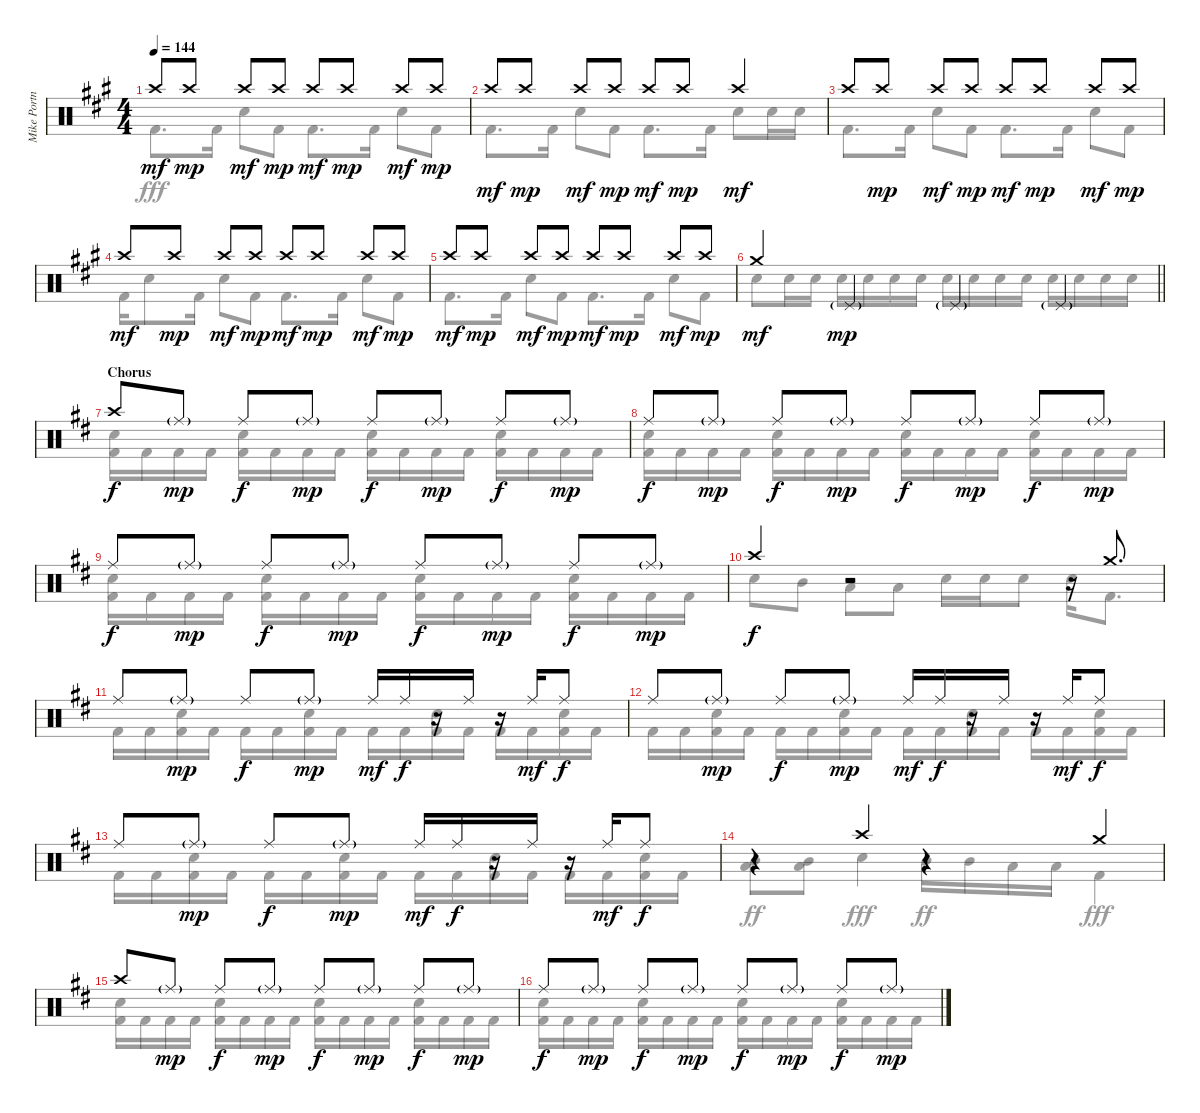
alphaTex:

\track ("Mike Portnoy Drums" "Mike Portn") {instrument percussion}
\staff {score}
\articulation defaults
\voice
\ts (4 4)
\tempo 144
\clef neutral
\ks f#minor "Crash high (hit)".8{dy mf} "Crash high (hit)".8{dy mp} "Crash high (hit)".8{dy mf} "Crash high (hit)".8{dy mp} "Crash high (hit)".8{dy mf} "Crash high (hit)".8{dy mp} "Crash high (hit)".8{dy mf} "Crash high (hit)".8{dy mp}
|
"Crash high (hit)".8{dy mf} "Crash high (hit)".8{dy mp} "Crash high (hit)".8{dy mf} "Crash high (hit)".8{dy mp} "Crash high (hit)".8{dy mf} "Crash high (hit)".8{dy mp} "Crash high (hit)".4{dy mf} |
"Crash high (hit)".8 "Crash high (hit)".8{dy mp} "Crash high (hit)".8{dy mf} "Crash high (hit)".8{dy mp} "Crash high (hit)".8{dy mf} "Crash high (hit)".8{dy mp} "Crash high (hit)".8{dy mf} "Crash high (hit)".8{dy mp} |
"Crash high (hit)".8{dy mf} "Crash high (hit)".8{dy mp} "Crash high (hit)".8{dy mf} "Crash high (hit)".8{dy mp} "Crash high (hit)".8{dy mf} "Crash high (hit)".8{dy mp} "Crash high (hit)".8{dy mf} "Crash high (hit)".8{dy mp} |
"Crash high (hit)".8{dy mf} "Crash high (hit)".8{dy mp} "Crash high (hit)".8{dy mf} "Crash high (hit)".8{dy mp} "Crash high (hit)".8{dy mf} "Crash high (hit)".8{dy mp} "Crash high (hit)".8{dy mf} "Crash high (hit)".8{dy mp} |
\barLineRight lightlight "Crash medium (hit)".4{dy mf} "Pedal Hi-Hat (hit)"{g}.4{dy mp} "Pedal Hi-Hat (hit)"{g}.4 "Pedal Hi-Hat (hit)"{g}.4
|
\section ("" "Chorus")
\ks bminor "Crash high (hit)".8{dy f} "Ride (middle)"{g}.8{dy mp} "Ride (middle)".8{dy f} "Ride (middle)"{g}.8{dy mp} "Ride (middle)".8{dy f} "Ride (middle)"{g}.8{dy mp} "Ride (middle)".8{dy f} "Ride (middle)"{g}.8{dy mp}
|
"Ride (middle)".8{dy f} "Ride (middle)"{g}.8{dy mp} "Ride (middle)".8{dy f} "Ride (middle)"{g}.8{dy mp} "Ride (middle)".8{dy f} "Ride (middle)"{g}.8{dy mp} "Ride (middle)".8{dy f} "Ride (middle)"{g}.8{dy mp} |
"Ride (middle)".8{dy f} "Ride (middle)"{g}.8{dy mp} "Ride (middle)".8{dy f} "Ride (middle)"{g}.8{dy mp} "Ride (middle)".8{dy f} "Ride (middle)"{g}.8{dy mp} "Ride (middle)".8{dy f} "Ride (middle)"{g}.8{dy mp} |
"Crash high (hit)".4{dy f} r.2 r.16 "Crash medium (hit)".8{d} |
"Ride (middle)".8 "Ride (middle)"{g}.8{dy mp} "Ride (middle)".8{dy f} "Ride (middle)"{g}.8{dy mp} "Ride (middle)".16{dy mf} "Ride (middle)".16{dy f} r.16 "Ride (middle)".16 r.16 "Ride (middle)".16{dy mf} "Ride (middle)".8{dy f} |
"Ride (middle)".8 "Ride (middle)"{g}.8{dy mp} "Ride (middle)".8{dy f} "Ride (middle)"{g}.8{dy mp} "Ride (middle)".16{dy mf} "Ride (middle)".16{dy f} r.16 "Ride (middle)".16 r.16 "Ride (middle)".16{dy mf} "Ride (middle)".8{dy f} |
"Ride (middle)".8 "Ride (middle)"{g}.8{dy mp} "Ride (middle)".8{dy f} "Ride (middle)"{g}.8{dy mp} "Ride (middle)".16{dy mf} "Ride (middle)".16{dy f} r.16 "Ride (middle)".16 r.16 "Ride (middle)".16{dy mf} "Ride (middle)".8{dy f} |
r.4 "Crash high (hit)".4 r.4 "Crash medium (hit)".4 |
"Crash high (hit)".8 "Ride (middle)"{g}.8{dy mp} "Ride (middle)".8{dy f} "Ride (middle)"{g}.8{dy mp} "Ride (middle)".8{dy f} "Ride (middle)"{g}.8{dy mp} "Ride (middle)".8{dy f} "Ride (middle)"{g}.8{dy mp} |
"Ride (middle)".8{dy f} "Ride (middle)"{g}.8{dy mp} "Ride (middle)".8{dy f} "Ride (middle)"{g}.8{dy mp} "Ride (middle)".8{dy f} "Ride (middle)"{g}.8{dy mp} "Ride (middle)".8{dy f} "Ride (middle)"{g}.8{dy mp}
\voice
\clef neutral
\ottava regular
\simile none
\ks f#minor "Kick (hit) 2".8{d dy fff} "Kick (hit) 2".16 "Snare (hit) 2".8 "Kick (hit) 2".8 "Kick (hit) 2".8{d} "Kick (hit) 2".16 "Snare (hit) 2".8 "Kick (hit) 2".8
|
"Kick (hit) 2".8{d} "Kick (hit) 2".16 "Snare (hit) 2".8 "Kick (hit) 2".8 "Kick (hit) 2".8{d} "Kick (hit) 2".16 "Snare (hit) 2".8 "Snare (hit) 2".16 "Snare (hit) 2".16 |
"Kick (hit) 2".8{d} "Kick (hit) 2".16 "Snare (hit) 2".8 "Kick (hit) 2".8 "Kick (hit) 2".8{d} "Kick (hit) 2".16 "Snare (hit) 2".8 "Kick (hit) 2".8 |
"Kick (hit) 2".16 "Snare (hit) 2".8 "Kick (hit) 2".16 "Snare (hit) 2".8 "Kick (hit) 2".8 "Kick (hit) 2".8{d} "Kick (hit) 2".16 "Snare (hit) 2".8 "Kick (hit) 2".8 |
"Kick (hit) 2".8{d} "Kick (hit) 2".16 "Snare (hit) 2".8 "Kick (hit) 2".8 "Kick (hit) 2".8{d} "Kick (hit) 2".16 "Snare (hit) 2".8 "Kick (hit) 2".8 |
\barLineRight lightlight "Snare (hit) 2".8 "Snare (hit) 2".16 "Snare (hit) 2".16 "Snare (hit) 2".16 "Snare (hit) 2".16 "Snare (hit) 2".16 "Snare (hit) 2".16 "Snare (hit) 2".16 "Snare (hit) 2".16 "Snare (hit) 2".16 "Snare (hit) 2".16 "Snare (hit) 2".16 "Snare (hit) 2".16 "Snare (hit) 2".16 "Snare (hit) 2".16
|
\ks bminor
("Snare (hit) 2" "Kick (hit) 2").16 "Kick (hit) 2".16 "Kick (hit) 2".16 "Kick (hit) 2".16 ("Snare (hit) 2" "Kick (hit) 2").16 "Kick (hit) 2".16 "Kick (hit) 2".16 "Kick (hit) 2".16 ("Snare (hit) 2" "Kick (hit) 2").16 "Kick (hit) 2".16 "Kick (hit) 2".16 "Kick (hit) 2".16 ("Snare (hit) 2" "Kick (hit) 2").16 "Kick (hit) 2".16 "Kick (hit) 2".16 "Kick (hit) 2".16 |
("Snare (hit) 2" "Kick (hit) 2").16 "Kick (hit) 2".16 "Kick (hit) 2".16 "Kick (hit) 2".16 ("Snare (hit) 2" "Kick (hit) 2").16 "Kick (hit) 2".16 "Kick (hit) 2".16 "Kick (hit) 2".16 ("Snare (hit) 2" "Kick (hit) 2").16 "Kick (hit) 2".16 "Kick (hit) 2".16 "Kick (hit) 2".16 ("Snare (hit) 2" "Kick (hit) 2").16 "Kick (hit) 2".16 "Kick (hit) 2".16 "Kick (hit) 2".16 |
("Snare (hit) 2" "Kick (hit) 2").16 "Kick (hit) 2".16 "Kick (hit) 2".16 "Kick (hit) 2".16 ("Snare (hit) 2" "Kick (hit) 2").16 "Kick (hit) 2".16 "Kick (hit) 2".16 "Kick (hit) 2".16 ("Snare (hit) 2" "Kick (hit) 2").16 "Kick (hit) 2".16 "Kick (hit) 2".16 "Kick (hit) 2".16 ("Snare (hit) 2" "Kick (hit) 2").16 "Kick (hit) 2".16 "Kick (hit) 2".16 "Kick (hit) 2".16 |
"Snare (hit) 2".8 "Mid Tom (hit)".8 "Low Tom (hit)".8 "Low Tom (hit)".8 "Snare (hit) 2".16 "Snare (hit) 2".16 "Snare (hit) 2".8 "Snare (hit) 2".16 "Kick (hit) 2".8{d} |
"Kick (hit) 2".16 "Kick (hit) 2".16 ("Snare (hit) 2" "Kick (hit) 2").16 "Kick (hit) 2".16 "Kick (hit) 2".16 "Kick (hit) 2".16 ("Snare (hit) 2" "Kick (hit) 2").16 "Kick (hit) 2".16 "Kick (hit) 2".16 "Kick (hit) 2".16 ("Snare (hit) 2" "Kick (hit) 2").16 "Kick (hit) 2".16 "Kick (hit) 2".16 "Kick (hit) 2".16 ("Snare (hit) 2" "Kick (hit) 2").16 "Kick (hit) 2".16 |
"Kick (hit) 2".16 "Kick (hit) 2".16 ("Snare (hit) 2" "Kick (hit) 2").16 "Kick (hit) 2".16 "Kick (hit) 2".16 "Kick (hit) 2".16 ("Snare (hit) 2" "Kick (hit) 2").16 "Kick (hit) 2".16 "Kick (hit) 2".16 "Kick (hit) 2".16 ("Snare (hit) 2" "Kick (hit) 2").16 "Kick (hit) 2".16 "Kick (hit) 2".16 "Kick (hit) 2".16 ("Snare (hit) 2" "Kick (hit) 2").16 "Kick (hit) 2".16 |
"Kick (hit) 2".16 "Kick (hit) 2".16 ("Snare (hit) 2" "Kick (hit) 2").16 "Kick (hit) 2".16 "Kick (hit) 2".16 "Kick (hit) 2".16 ("Snare (hit) 2" "Kick (hit) 2").16 "Kick (hit) 2".16 "Kick (hit) 2".16 "Kick (hit) 2".16 ("Snare (hit) 2" "Kick (hit) 2").16 "Kick (hit) 2".16 "Kick (hit) 2".16 "Kick (hit) 2".16 ("Snare (hit) 2" "Kick (hit) 2").16 "Kick (hit) 2".16 |
("Mid Tom (hit)" "Low Tom (hit)").8{dy ff} ("Mid Tom (hit)" "Low Tom (hit)").8 "Snare (hit) 2".4{dy fff} "Mid Tom (hit)".16{dy ff} "Mid Tom (hit)".16 "Low Tom (hit)".16 "Low Tom (hit)".16 "Kick (hit) 2".4{dy fff} |
("Snare (hit) 2" "Kick (hit) 2").16 "Kick (hit) 2".16 "Kick (hit) 2".16 "Kick (hit) 2".16 ("Snare (hit) 2" "Kick (hit) 2").16 "Kick (hit) 2".16 "Kick (hit) 2".16 "Kick (hit) 2".16 ("Snare (hit) 2" "Kick (hit) 2").16 "Kick (hit) 2".16 "Kick (hit) 2".16 "Kick (hit) 2".16 ("Snare (hit) 2" "Kick (hit) 2").16 "Kick (hit) 2".16 "Kick (hit) 2".16 "Kick (hit) 2".16 |
("Snare (hit) 2" "Kick (hit) 2").16 "Kick (hit) 2".16 "Kick (hit) 2".16 "Kick (hit) 2".16 ("Snare (hit) 2" "Kick (hit) 2").16 "Kick (hit) 2".16 "Kick (hit) 2".16 "Kick (hit) 2".16 ("Snare (hit) 2" "Kick (hit) 2").16 "Kick (hit) 2".16 "Kick (hit) 2".16 "Kick (hit) 2".16 ("Snare (hit) 2" "Kick (hit) 2").16 "Kick (hit) 2".16 "Kick (hit) 2".16 "Kick (hit) 2".16
